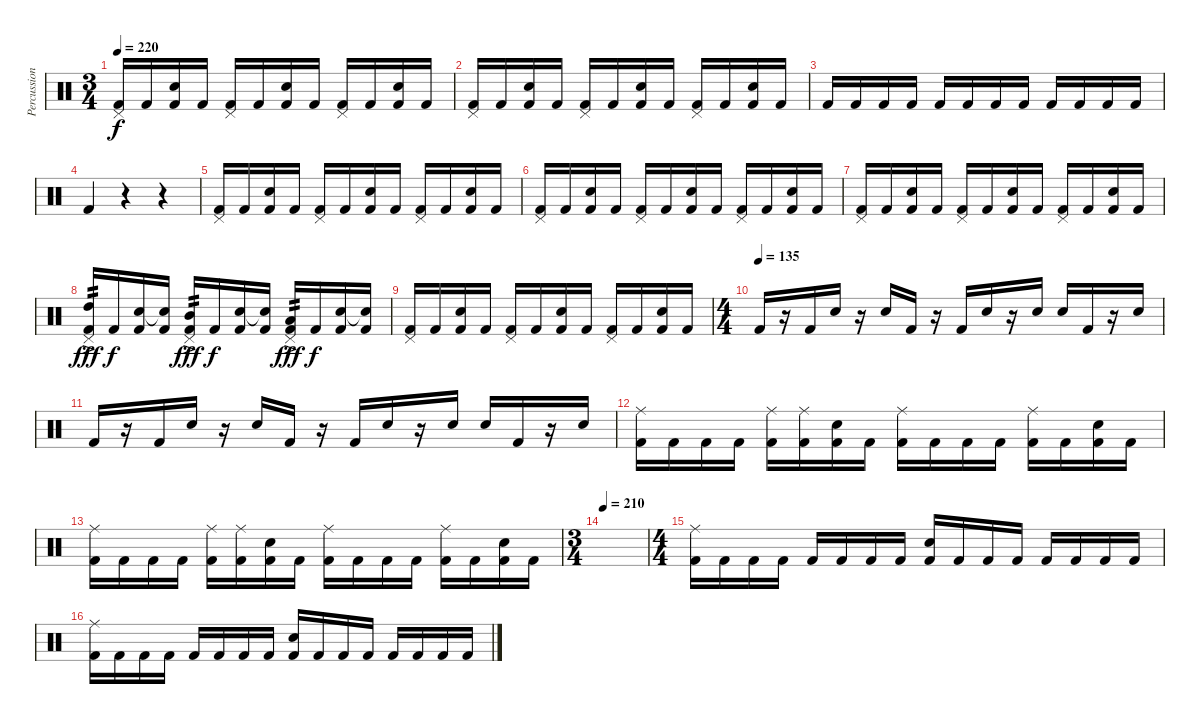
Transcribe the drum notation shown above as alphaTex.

\track ("Percussions" "Percussion") {instrument percussion}
\staff {score}
\articulation defaults
\ts (3 4)
\tempo 220
\clef neutral
\ks c
("Pedal Hi-Hat (hit)" "Kick (hit) 2").16{dy f} "Kick (hit) 2".16 ("Snare (hit) 2" "Kick (hit) 2").16 "Kick (hit) 2".16 ("Pedal Hi-Hat (hit)" "Kick (hit) 2").16 "Kick (hit) 2".16 ("Snare (hit) 2" "Kick (hit) 2").16 "Kick (hit) 2".16 ("Pedal Hi-Hat (hit)" "Kick (hit) 2").16 "Kick (hit) 2".16 ("Snare (hit) 2" "Kick (hit) 2").16 "Kick (hit) 2".16 |
("Pedal Hi-Hat (hit)" "Kick (hit) 2").16 "Kick (hit) 2".16 ("Snare (hit) 2" "Kick (hit) 2").16 "Kick (hit) 2".16 ("Pedal Hi-Hat (hit)" "Kick (hit) 2").16 "Kick (hit) 2".16 ("Snare (hit) 2" "Kick (hit) 2").16 "Kick (hit) 2".16 ("Pedal Hi-Hat (hit)" "Kick (hit) 2").16 "Kick (hit) 2".16 ("Snare (hit) 2" "Kick (hit) 2").16 "Kick (hit) 2".16 |
"Kick (hit) 2".16 "Kick (hit) 2".16 "Kick (hit) 2".16 "Kick (hit) 2".16 "Kick (hit) 2".16 "Kick (hit) 2".16 "Kick (hit) 2".16 "Kick (hit) 2".16 "Kick (hit) 2".16 "Kick (hit) 2".16 "Kick (hit) 2".16 "Kick (hit) 2".16 |
"Kick (hit) 2".4 r.4 r.4 |
("Pedal Hi-Hat (hit)" "Kick (hit) 2").16 "Kick (hit) 2".16 ("Snare (hit) 2" "Kick (hit) 2").16 "Kick (hit) 2".16 ("Pedal Hi-Hat (hit)" "Kick (hit) 2").16 "Kick (hit) 2".16 ("Snare (hit) 2" "Kick (hit) 2").16 "Kick (hit) 2".16 ("Pedal Hi-Hat (hit)" "Kick (hit) 2").16 "Kick (hit) 2".16 ("Snare (hit) 2" "Kick (hit) 2").16 "Kick (hit) 2".16 |
("Pedal Hi-Hat (hit)" "Kick (hit) 2").16 "Kick (hit) 2".16 ("Snare (hit) 2" "Kick (hit) 2").16 "Kick (hit) 2".16 ("Pedal Hi-Hat (hit)" "Kick (hit) 2").16 "Kick (hit) 2".16 ("Snare (hit) 2" "Kick (hit) 2").16 "Kick (hit) 2".16 ("Pedal Hi-Hat (hit)" "Kick (hit) 2").16 "Kick (hit) 2".16 ("Snare (hit) 2" "Kick (hit) 2").16 "Kick (hit) 2".16 |
("Pedal Hi-Hat (hit)" "Kick (hit) 2").16 "Kick (hit) 2".16 ("Snare (hit) 2" "Kick (hit) 2").16 "Kick (hit) 2".16 ("Pedal Hi-Hat (hit)" "Kick (hit) 2").16 "Kick (hit) 2".16 ("Snare (hit) 2" "Kick (hit) 2").16 "Kick (hit) 2".16 ("Pedal Hi-Hat (hit)" "Kick (hit) 2").16 "Kick (hit) 2".16 ("Snare (hit) 2" "Kick (hit) 2").16 "Kick (hit) 2".16 |
("High Tom (hit)"{ac} "Pedal Hi-Hat (hit)" "Kick (hit) 2").16{tp 2 dy fff} "Kick (hit) 2".16{dy f} ("Snare (hit) 2" "Kick (hit) 2").16 ("Snare (hit)"{t} "Kick (hit) 2").16 ("Mid Tom (hit)"{ac} "Pedal Hi-Hat (hit)" "Kick (hit) 2").16{tp 2 dy fff} "Kick (hit) 2".16{dy f} ("Snare (hit) 2" "Kick (hit) 2").16 ("Snare (hit)"{t} "Kick (hit) 2").16 ("Low Tom (hit)"{ac} "Pedal Hi-Hat (hit)" "Kick (hit) 2").16{tp 2 dy fff} "Kick (hit) 2".16{dy f} ("Snare (hit) 2" "Kick (hit) 2").16 ("Snare (hit)"{t} "Kick (hit) 2").16 |
("Pedal Hi-Hat (hit)" "Kick (hit) 2").16 "Kick (hit) 2".16 ("Snare (hit) 2" "Kick (hit) 2").16 "Kick (hit) 2".16 ("Pedal Hi-Hat (hit)" "Kick (hit) 2").16 "Kick (hit) 2".16 ("Snare (hit) 2" "Kick (hit) 2").16 "Kick (hit) 2".16 ("Pedal Hi-Hat (hit)" "Kick (hit) 2").16 "Kick (hit) 2".16 ("Snare (hit) 2" "Kick (hit) 2").16 "Kick (hit) 2".16 |
\ts (4 4)
\tempo (135)
"Kick (hit) 2".16 r.16 "Kick (hit) 2".16 "Snare (hit) 2".16 r.16 "Snare (hit) 2".16 "Kick (hit) 2".16 r.16 "Kick (hit) 2".16 "Snare (hit) 2".16 r.16 "Snare (hit) 2".16 "Snare (hit) 2".16 "Kick (hit) 2".16 r.16 "Snare (hit) 2".16 |
"Kick (hit) 2".16 r.16 "Kick (hit) 2".16 "Snare (hit) 2".16 r.16 "Snare (hit) 2".16 "Kick (hit) 2".16 r.16 "Kick (hit) 2".16 "Snare (hit) 2".16 r.16 "Snare (hit) 2".16 "Snare (hit) 2".16 "Kick (hit) 2".16 r.16 "Snare (hit) 2".16 |
("Ride (middle)" "Kick (hit) 2").16 "Kick (hit) 2".16 "Kick (hit) 2".16 "Kick (hit) 2".16 ("Ride (middle)" "Kick (hit) 2").16 ("Ride (middle)" "Kick (hit) 2").16 ("Snare (hit) 2" "Kick (hit) 2").16 "Kick (hit) 2".16 ("Ride (middle)" "Kick (hit) 2").16 "Kick (hit) 2".16 "Kick (hit) 2".16 "Kick (hit) 2".16 ("Ride (middle)" "Kick (hit) 2").16 "Kick (hit) 2".16 ("Snare (hit) 2" "Kick (hit) 2").16 "Kick (hit) 2".16 |
("Ride (middle)" "Kick (hit) 2").16 "Kick (hit) 2".16 "Kick (hit) 2".16 "Kick (hit) 2".16 ("Ride (middle)" "Kick (hit) 2").16 ("Ride (middle)" "Kick (hit) 2").16 ("Snare (hit) 2" "Kick (hit) 2").16 "Kick (hit) 2".16 ("Ride (middle)" "Kick (hit) 2").16 "Kick (hit) 2".16 "Kick (hit) 2".16 "Kick (hit) 2".16 ("Ride (middle)" "Kick (hit) 2").16 "Kick (hit) 2".16 ("Snare (hit) 2" "Kick (hit) 2").16 "Kick (hit) 2".16 |
\ts (3 4)
\tempo 210
|
\ts (4 4)
("Ride (middle)" "Kick (hit) 2").16 "Kick (hit) 2".16 "Kick (hit) 2".16 "Kick (hit) 2".16 "Kick (hit) 2".16 "Kick (hit) 2".16 "Kick (hit) 2".16 "Kick (hit) 2".16 ("Snare (hit) 2" "Kick (hit) 2").16 "Kick (hit) 2".16 "Kick (hit) 2".16 "Kick (hit) 2".16 "Kick (hit) 2".16 "Kick (hit) 2".16 "Kick (hit) 2".16 "Kick (hit) 2".16 |
("Ride (middle)" "Kick (hit) 2").16 "Kick (hit) 2".16 "Kick (hit) 2".16 "Kick (hit) 2".16 "Kick (hit) 2".16 "Kick (hit) 2".16 "Kick (hit) 2".16 "Kick (hit) 2".16 ("Snare (hit) 2" "Kick (hit) 2").16 "Kick (hit) 2".16 "Kick (hit) 2".16 "Kick (hit) 2".16 "Kick (hit) 2".16 "Kick (hit) 2".16 "Kick (hit) 2".16 "Kick (hit) 2".16
